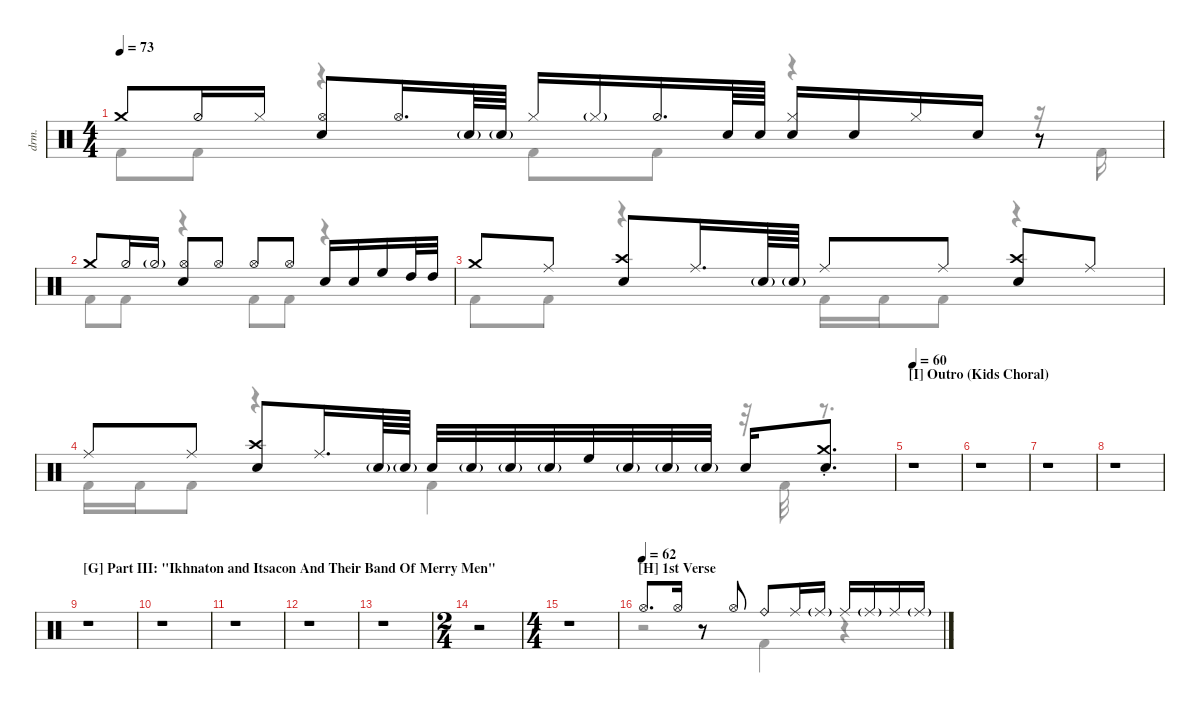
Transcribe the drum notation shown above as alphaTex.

\defaultSystemsLayout 4
\hideDynamics
\bracketExtendMode nobrackets
\track ("Drums" "drm.") {instrument percussion}
\staff {score}
\articulation defaults
\voice
\ts (4 4)
\tempo 73
\clef neutral
\scale
0.507797
\ks c "Crash medium (hit)".8{dy mf} "Hi-Hat (half)".16 "Hi-Hat (closed)".16
("Hi-Hat (open)" "Snare (hit) 2").8 "Hi-Hat (open)".16{d} "Snare (hit) 2"{g}.64 "Snare (hit) 2"{g}.64 "Hi-Hat (closed)".16 "Hi-Hat (closed)"{g}.16 "Hi-Hat (half)".16{d} "Snare (hit) 2".64 "Snare (hit) 2".64 ("Hi-Hat (closed)" "Snare (hit) 2").16 "Snare (hit) 2".16 "Hi-Hat (closed)".16 "Snare (hit) 2".16 r.8 |
\scale
0.492203 "Crash medium (hit)".8 "Hi-Hat (half)".16 "Hi-Hat (half)"{g}.16 ("Hi-Hat (open)" "Snare (hit) 2").8 "Hi-Hat (open)".8 "Hi-Hat (open)".8 "Hi-Hat (open)".8 "Snare (hit) 2".16 "Snare (hit) 2".16 "High Floor Tom (hit)".16 "High Tom (hit)".32 "High Tom (hit)".32 |
\scale
0.507799 "Crash medium (hit)".8 "Ride (middle)".8 ("Snare (hit) 2" "Crash high (hit)").8 "Ride (middle)".16{d} "Snare (hit) 2"{g}.64 "Snare (hit) 2"{g}.64 "Ride (middle)".8 "Ride (middle)".8 ("Crash high (hit)" "Snare (hit) 2").8 "Ride (middle)".8 |
\scale
0.492202 "Ride (middle)".8 "Ride (middle)".8 ("Crash high (hit)" "Snare (hit) 2").8 "Ride (middle)".16{d} "Snare (hit) 2"{g}.64 "Snare (hit) 2"{g}.64 "Snare (hit) 2".32 "Snare (hit) 2"{g}.32 "Snare (hit) 2"{g}.32 "Snare (hit) 2"{g}.32 "High Floor Tom (hit)".32 "Snare (hit) 2"{g}.32 "Snare (hit) 2"{g}.32 "Snare (hit) 2"{g}.32 "Snare (hit) 2".16 ("Crash medium (hit)"{st} "Snare (hit) 2"{st}).8{d} |
\section ("I" "Outro (Kids Choral)")
\tempo 60
r.1 |
r.1 |
r.1 |
r.1 |
\section ("G" "Part III: \"Ikhnaton and Itsacon And Their Band Of Merry Men\"")
r.1 |
r.1 |
r.1 |
r.1 |
r.1 |
\ts (2 4)
\beaming (8 2 2)
r.2 |
\ts (4 4)
\beaming (8 2 2 2 2)
r.1 |
\section ("H" "1st Verse")
\tempo (62)
"Hi-Hat (open)".8{d} "Hi-Hat (open)".16 r.8 "Hi-Hat (open)".8 "Ride (bell)".8 "Ride (middle)".16 "Ride (middle)"{g}.16 "Ride (middle)".16 "Ride (middle)"{g}.16 "Ride (middle)".16 "Ride (middle)"{g}.16
\voice
\clef neutral
\ottava regular
\simile none
\scale
0.507797
\ks c "Kick (hit) 2".8{dy mf} "Kick (hit) 2".8
r.4 "Kick (hit) 2".8 "Kick (hit) 2".8 r.4 r.16 "Kick (hit) 2".16 |
\scale
0.492203 "Kick (hit) 2".8 "Kick (hit) 2".8 r.4 "Kick (hit) 2".8 "Kick (hit) 2".8 r.4 |
\scale
0.507799 "Kick (hit) 2".8 "Kick (hit) 2".8 r.4 "Kick (hit) 2".16 "Kick (hit) 2".16 "Kick (hit) 2".8 r.4 |
\scale
0.492202 "Kick (hit) 2".16 "Kick (hit) 2".16 "Kick (hit) 2".8 r.4 "Kick (hit) 2".4 r.32 "Kick (hit) 2".32 r.8{d} |
|
|
|
|
|
|
|
|
|
|
|
r.2 "Kick (hit) 2".4 r.4
